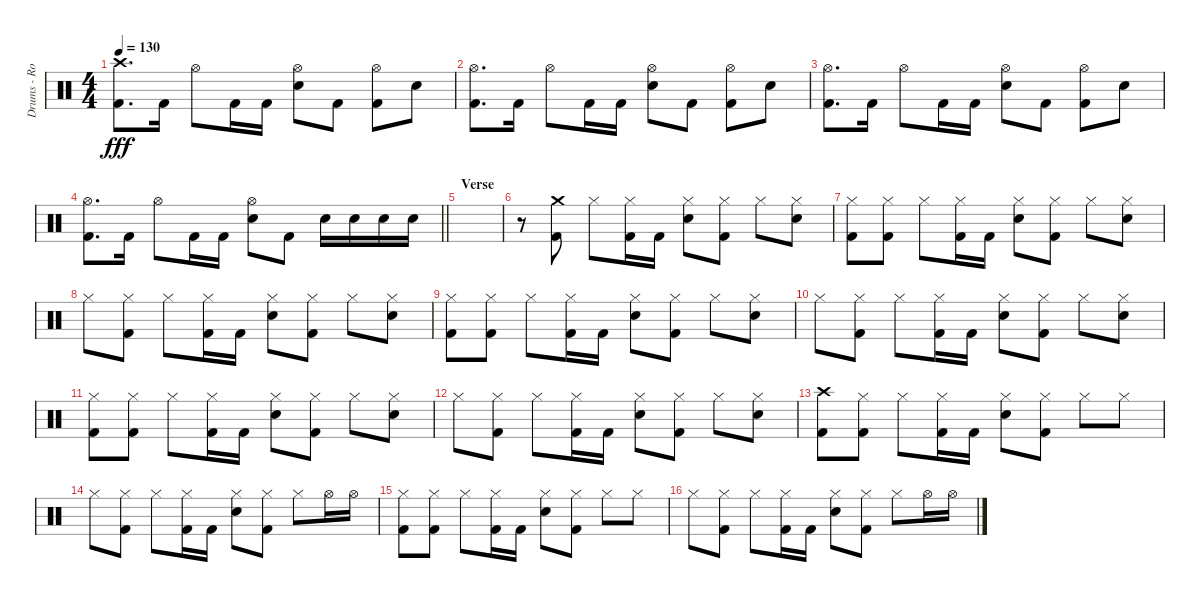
\track ("Drums - Rob Bourdon" "Drums - Ro") {instrument percussion}
\staff {score}
\articulation defaults
\ts (4 4)
\tempo 130
\clef neutral
\ks c
("Crash high (hit)" "Kick (hit) 2").8{d dy fff} "Kick (hit) 2".16 "Hi-Hat (open)".8 "Kick (hit) 2".16 "Kick (hit) 2".16 ("Hi-Hat (open)" "Snare (hit) 2").8 "Kick (hit) 2".8 ("Hi-Hat (open)" "Kick (hit) 2").8 "Snare (hit) 2".8 |
("Hi-Hat (open)" "Kick (hit) 2").8{d} "Kick (hit) 2".16 "Hi-Hat (open)".8 "Kick (hit) 2".16 "Kick (hit) 2".16 ("Hi-Hat (open)" "Snare (hit) 2").8 "Kick (hit) 2".8 ("Hi-Hat (open)" "Kick (hit) 2").8 "Snare (hit) 2".8 |
("Hi-Hat (open)" "Kick (hit) 2").8{d} "Kick (hit) 2".16 "Hi-Hat (open)".8 "Kick (hit) 2".16 "Kick (hit) 2".16 ("Hi-Hat (open)" "Snare (hit) 2").8 "Kick (hit) 2".8 ("Hi-Hat (open)" "Kick (hit) 2").8 "Snare (hit) 2".8 |
\barLineRight lightlight
("Hi-Hat (open)" "Kick (hit) 2").8{d} "Kick (hit) 2".16 "Hi-Hat (open)".8 "Kick (hit) 2".16 "Kick (hit) 2".16 ("Hi-Hat (open)" "Snare (hit) 2").8 "Kick (hit) 2".8 "Snare (hit) 2".16 "Snare (hit) 2".16 "Snare (hit) 2".16 "Snare (hit) 2".16 |
\section ("" "Verse")
|
r.8 ("Crash medium (hit)" "Kick (hit) 2").8 "Hi-Hat (closed)".8 ("Hi-Hat (closed)" "Kick (hit) 2").16 "Kick (hit) 2".16 ("Hi-Hat (closed)" "Snare (hit) 2").8 ("Hi-Hat (closed)" "Kick (hit) 2").8 "Hi-Hat (closed)".8 ("Hi-Hat (closed)" "Snare (hit) 2").8 |
("Hi-Hat (closed)" "Kick (hit) 2").8 ("Hi-Hat (closed)" "Kick (hit) 2").8 "Hi-Hat (closed)".8 ("Hi-Hat (closed)" "Kick (hit) 2").16 "Kick (hit) 2".16 ("Hi-Hat (closed)" "Snare (hit) 2").8 ("Hi-Hat (closed)" "Kick (hit) 2").8 "Hi-Hat (closed)".8 ("Hi-Hat (closed)" "Snare (hit) 2").8 |
"Hi-Hat (closed)".8 ("Hi-Hat (closed)" "Kick (hit) 2").8 "Hi-Hat (closed)".8 ("Hi-Hat (closed)" "Kick (hit) 2").16 "Kick (hit) 2".16 ("Hi-Hat (closed)" "Snare (hit) 2").8 ("Hi-Hat (closed)" "Kick (hit) 2").8 "Hi-Hat (closed)".8 ("Hi-Hat (closed)" "Snare (hit) 2").8 |
("Hi-Hat (closed)" "Kick (hit) 2").8 ("Hi-Hat (closed)" "Kick (hit) 2").8 "Hi-Hat (closed)".8 ("Hi-Hat (closed)" "Kick (hit) 2").16 "Kick (hit) 2".16 ("Hi-Hat (closed)" "Snare (hit) 2").8 ("Hi-Hat (closed)" "Kick (hit) 2").8 "Hi-Hat (closed)".8 ("Hi-Hat (closed)" "Snare (hit) 2").8 |
"Hi-Hat (closed)".8 ("Hi-Hat (closed)" "Kick (hit) 2").8 "Hi-Hat (closed)".8 ("Hi-Hat (closed)" "Kick (hit) 2").16 "Kick (hit) 2".16 ("Hi-Hat (closed)" "Snare (hit) 2").8 ("Hi-Hat (closed)" "Kick (hit) 2").8 "Hi-Hat (closed)".8 ("Hi-Hat (closed)" "Snare (hit) 2").8 |
("Hi-Hat (closed)" "Kick (hit) 2").8 ("Hi-Hat (closed)" "Kick (hit) 2").8 "Hi-Hat (closed)".8 ("Hi-Hat (closed)" "Kick (hit) 2").16 "Kick (hit) 2".16 ("Hi-Hat (closed)" "Snare (hit) 2").8 ("Hi-Hat (closed)" "Kick (hit) 2").8 "Hi-Hat (closed)".8 ("Hi-Hat (closed)" "Snare (hit) 2").8 |
"Hi-Hat (closed)".8 ("Hi-Hat (closed)" "Kick (hit) 2").8 "Hi-Hat (closed)".8 ("Hi-Hat (closed)" "Kick (hit) 2").16 "Kick (hit) 2".16 ("Hi-Hat (closed)" "Snare (hit) 2").8 ("Hi-Hat (closed)" "Kick (hit) 2").8 "Hi-Hat (closed)".8 ("Hi-Hat (closed)" "Snare (hit) 2").8 |
("Crash high (hit)" "Kick (hit) 2").8 ("Hi-Hat (closed)" "Kick (hit) 2").8 "Hi-Hat (closed)".8 ("Hi-Hat (closed)" "Kick (hit) 2").16 "Kick (hit) 2".16 ("Hi-Hat (closed)" "Snare (hit) 2").8 ("Hi-Hat (closed)" "Kick (hit) 2").8 "Hi-Hat (closed)".8 "Hi-Hat (closed)".8 |
"Hi-Hat (closed)".8 ("Hi-Hat (closed)" "Kick (hit) 2").8 "Hi-Hat (closed)".8 ("Hi-Hat (closed)" "Kick (hit) 2").16 "Kick (hit) 2".16 ("Hi-Hat (closed)" "Snare (hit) 2").8 ("Hi-Hat (closed)" "Kick (hit) 2").8 "Hi-Hat (closed)".8 "Hi-Hat (open)".16 "Hi-Hat (open)".16 |
("Hi-Hat (closed)" "Kick (hit) 2").8 ("Hi-Hat (closed)" "Kick (hit) 2").8 "Hi-Hat (closed)".8 ("Hi-Hat (closed)" "Kick (hit) 2").16 "Kick (hit) 2".16 ("Hi-Hat (closed)" "Snare (hit) 2").8 ("Hi-Hat (closed)" "Kick (hit) 2").8 "Hi-Hat (closed)".8 "Hi-Hat (closed)".8 |
"Hi-Hat (closed)".8 ("Hi-Hat (closed)" "Kick (hit) 2").8 "Hi-Hat (closed)".8 ("Hi-Hat (closed)" "Kick (hit) 2").16 "Kick (hit) 2".16 ("Hi-Hat (closed)" "Snare (hit) 2").8 ("Hi-Hat (closed)" "Kick (hit) 2").8 "Hi-Hat (closed)".8 "Hi-Hat (open)".16 "Hi-Hat (open)".16
